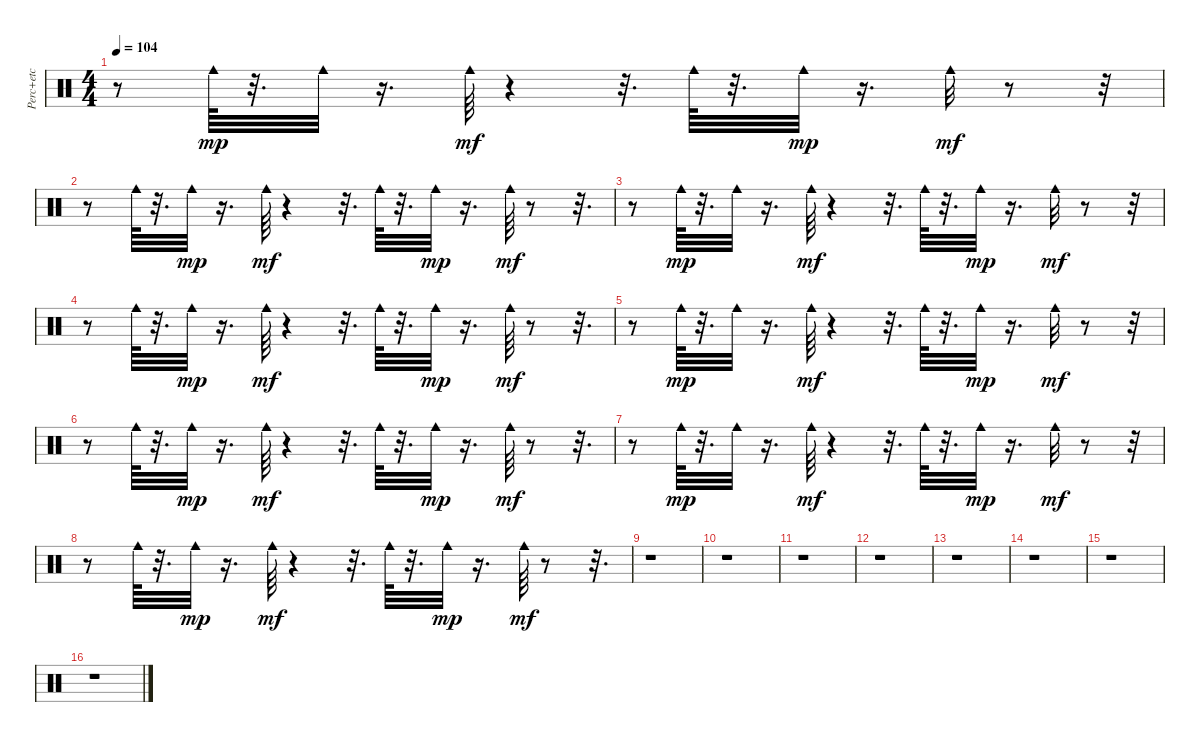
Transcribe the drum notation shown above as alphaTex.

\track ("Perc+etc" "Perc+etc") {instrument percussion}
\staff {score}
\articulation defaults
\ts (4 4)
\tempo 104
\clef neutral
\ks c
r.8{dy mf} "Cowbell medium (hit)".64{dy mp} r.32{d} "Cowbell medium (hit)".32 r.16{d} "Cowbell medium (hit)".64{dy mf} r.4 r.32{d} "Cowbell medium (hit)".64 r.32{d} "Cowbell medium (hit)".32{dy mp} r.16{d} "Cowbell medium (hit)".32{dy mf} r.8 r.32 |
r.8 "Cowbell medium (hit)".64 r.32{d} "Cowbell medium (hit)".32{dy mp} r.16{d} "Cowbell medium (hit)".64{dy mf} r.4 r.32{d} "Cowbell medium (hit)".64 r.32{d} "Cowbell medium (hit)".32{dy mp} r.16{d} "Cowbell medium (hit)".64{dy mf} r.8 r.32{d} |
r.8 "Cowbell medium (hit)".64{dy mp} r.32{d} "Cowbell medium (hit)".32 r.16{d} "Cowbell medium (hit)".64{dy mf} r.4 r.32{d} "Cowbell medium (hit)".64 r.32{d} "Cowbell medium (hit)".32{dy mp} r.16{d} "Cowbell medium (hit)".32{dy mf} r.8 r.32 |
r.8 "Cowbell medium (hit)".64 r.32{d} "Cowbell medium (hit)".32{dy mp} r.16{d} "Cowbell medium (hit)".64{dy mf} r.4 r.32{d} "Cowbell medium (hit)".64 r.32{d} "Cowbell medium (hit)".32{dy mp} r.16{d} "Cowbell medium (hit)".64{dy mf} r.8 r.32{d} |
r.8 "Cowbell medium (hit)".64{dy mp} r.32{d} "Cowbell medium (hit)".32 r.16{d} "Cowbell medium (hit)".64{dy mf} r.4 r.32{d} "Cowbell medium (hit)".64 r.32{d} "Cowbell medium (hit)".32{dy mp} r.16{d} "Cowbell medium (hit)".32{dy mf} r.8 r.32 |
r.8 "Cowbell medium (hit)".64 r.32{d} "Cowbell medium (hit)".32{dy mp} r.16{d} "Cowbell medium (hit)".64{dy mf} r.4 r.32{d} "Cowbell medium (hit)".64 r.32{d} "Cowbell medium (hit)".32{dy mp} r.16{d} "Cowbell medium (hit)".64{dy mf} r.8 r.32{d} |
r.8 "Cowbell medium (hit)".64{dy mp} r.32{d} "Cowbell medium (hit)".32 r.16{d} "Cowbell medium (hit)".64{dy mf} r.4 r.32{d} "Cowbell medium (hit)".64 r.32{d} "Cowbell medium (hit)".32{dy mp} r.16{d} "Cowbell medium (hit)".32{dy mf} r.8 r.32 |
r.8 "Cowbell medium (hit)".64 r.32{d} "Cowbell medium (hit)".32{dy mp} r.16{d} "Cowbell medium (hit)".64{dy mf} r.4 r.32{d} "Cowbell medium (hit)".64 r.32{d} "Cowbell medium (hit)".32{dy mp} r.16{d} "Cowbell medium (hit)".64{dy mf} r.8 r.32{d} |
r.1 |
r.1 |
r.1 |
r.1 |
r.1 |
r.1 |
r.1 |
r.1
